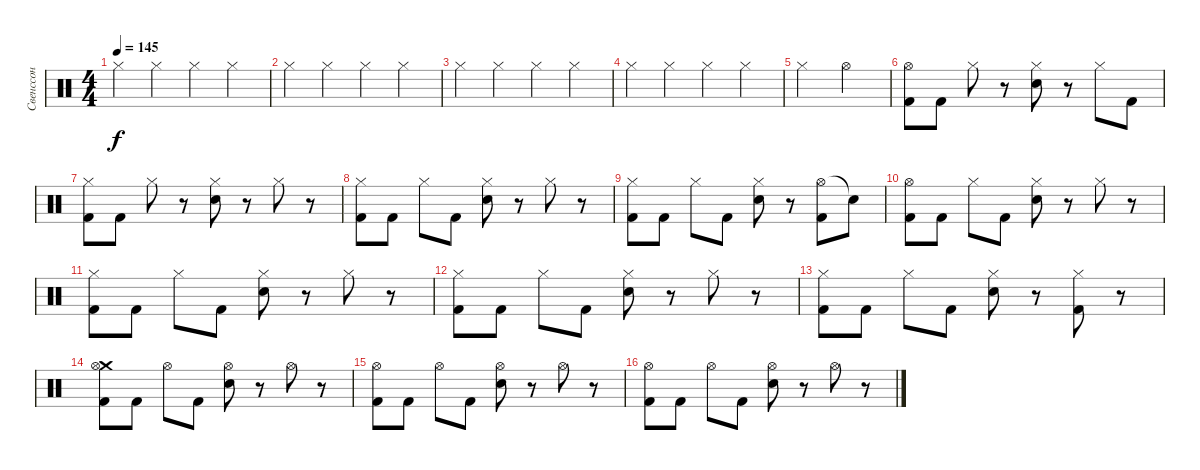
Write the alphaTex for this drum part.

\track ("Свенссон" "Свенссон") {instrument percussion}
\staff {score}
\articulation defaults
\ts (4 4)
\tempo 145
\clef neutral
\ks c "Hi-Hat (closed)".4{dy f} "Hi-Hat (closed)".4 "Hi-Hat (closed)".4 "Hi-Hat (closed)".4
|
"Hi-Hat (closed)".4 "Hi-Hat (closed)".4 "Hi-Hat (closed)".4 "Hi-Hat (closed)".4 |
"Hi-Hat (closed)".4 "Hi-Hat (closed)".4 "Hi-Hat (closed)".4 "Hi-Hat (closed)".4 |
"Hi-Hat (closed)".4 "Hi-Hat (closed)".4 "Hi-Hat (closed)".4 "Hi-Hat (closed)".4 |
"Hi-Hat (closed)".2 "Hi-Hat (open)".2 |
("Hi-Hat (open)" "Kick (hit) 2").8 "Kick (hit) 2".8 "Hi-Hat (closed)".8 r.8 ("Hi-Hat (closed)" "Snare (hit) 2").8 r.8 "Hi-Hat (closed)".8 "Kick (hit) 2".8 |
("Hi-Hat (closed)" "Kick (hit) 2").8 "Kick (hit) 2".8 "Hi-Hat (closed)".8 r.8 ("Hi-Hat (closed)" "Snare (hit) 2").8 r.8 "Hi-Hat (closed)".8 r.8 |
("Hi-Hat (closed)" "Kick (hit) 2").8 "Kick (hit) 2".8 "Hi-Hat (closed)".8 "Kick (hit) 2".8 ("Hi-Hat (closed)" "Snare (hit) 2").8 r.8 "Hi-Hat (closed)".8 r.8 |
("Hi-Hat (closed)" "Kick (hit) 2").8 "Kick (hit) 2".8 "Hi-Hat (closed)".8 "Kick (hit) 2".8 ("Hi-Hat (closed)" "Snare (hit) 2").8 r.8 ("Hi-Hat (open)" "Kick (hit) 2").8 "Snare (hit)"{t}.8 |
("Hi-Hat (open)" "Kick (hit) 2").8 "Kick (hit) 2".8 "Hi-Hat (closed)".8 "Kick (hit) 2".8 ("Hi-Hat (closed)" "Snare (hit) 2").8 r.8 "Hi-Hat (closed)".8 r.8 |
("Hi-Hat (closed)" "Kick (hit) 2").8 "Kick (hit) 2".8 "Hi-Hat (closed)".8 "Kick (hit) 2".8 ("Hi-Hat (closed)" "Snare (hit) 2").8 r.8 "Hi-Hat (closed)".8 r.8 |
("Hi-Hat (closed)" "Kick (hit) 2").8 "Kick (hit) 2".8 "Hi-Hat (closed)".8 "Kick (hit) 2".8 ("Hi-Hat (closed)" "Snare (hit) 2").8 r.8 "Hi-Hat (closed)".8 r.8 |
("Hi-Hat (closed)" "Kick (hit) 2").8 "Kick (hit) 2".8 "Hi-Hat (closed)".8 "Kick (hit) 2".8 ("Hi-Hat (closed)" "Snare (hit) 2").8 r.8 ("Hi-Hat (closed)" "Kick (hit) 2").8 r.8 |
("Crash medium (hit)" "Hi-Hat (open)" "Kick (hit) 2").8 "Kick (hit) 2".8 "Hi-Hat (open)".8 "Kick (hit) 2".8 ("Hi-Hat (open)" "Snare (hit) 2").8 r.8 "Hi-Hat (open)".8 r.8 |
("Hi-Hat (open)" "Kick (hit) 2").8 "Kick (hit) 2".8 "Hi-Hat (open)".8 "Kick (hit) 2".8 ("Hi-Hat (open)" "Snare (hit) 2").8 r.8 "Hi-Hat (open)".8 r.8 |
("Hi-Hat (open)" "Kick (hit) 2").8 "Kick (hit) 2".8 "Hi-Hat (open)".8 "Kick (hit) 2".8 ("Hi-Hat (open)" "Snare (hit) 2").8 r.8 "Hi-Hat (open)".8 r.8
